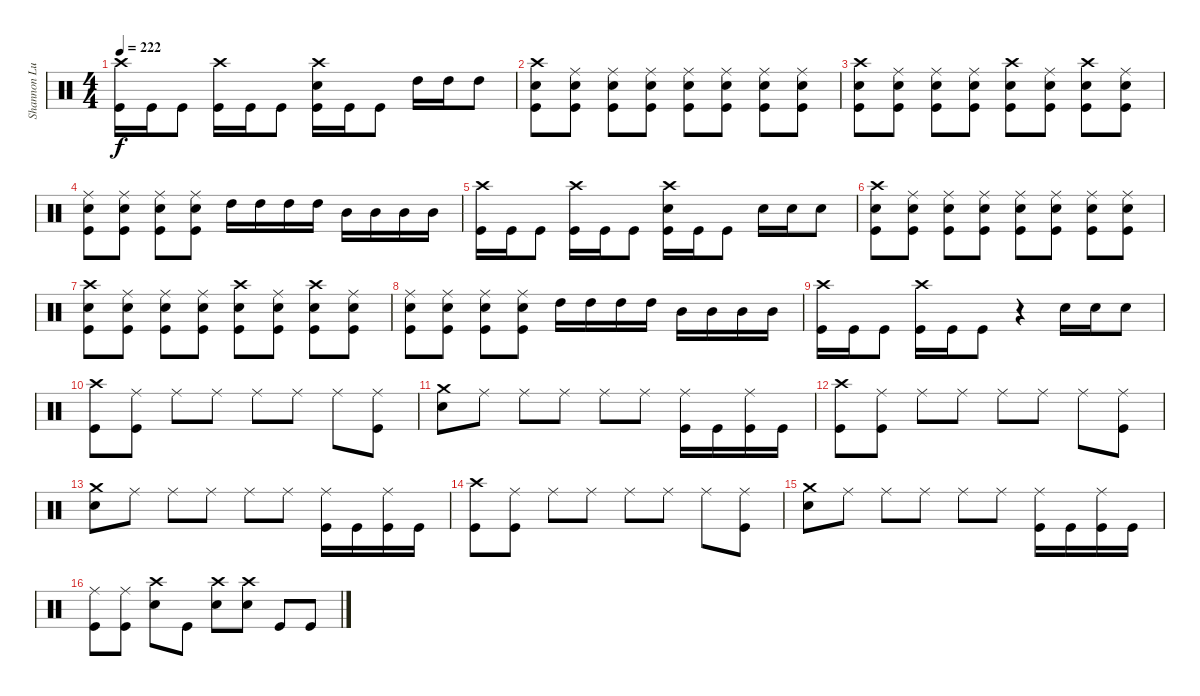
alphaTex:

\track ("Shannon Lucas" "Shannon Lu") {instrument percussion}
\staff {score}
\articulation defaults
\ts (4 4)
\tempo 222
\clef neutral
\ks c
("Crash high (hit)" "Kick (hit)").16{dy f} "Kick (hit)".16 "Kick (hit)".8 ("Crash high (hit)" "Kick (hit)").16 "Kick (hit)".16 "Kick (hit)".8 ("Crash high (hit)" "Snare (hit) 2" "Kick (hit)").16 "Kick (hit)".16 "Kick (hit)".8 "High Tom (hit)".16 "High Tom (hit)".16 "High Tom (hit)".8 |
("Crash high (hit)" "Snare (hit) 2" "Kick (hit)").8 ("Ride (middle)" "Snare (hit) 2" "Kick (hit)").8 ("Ride (middle)" "Snare (hit) 2" "Kick (hit)").8 ("Ride (middle)" "Snare (hit) 2" "Kick (hit)").8 ("Ride (middle)" "Snare (hit) 2" "Kick (hit)").8 ("Ride (middle)" "Snare (hit) 2" "Kick (hit)").8 ("Ride (middle)" "Snare (hit) 2" "Kick (hit)").8 ("Ride (middle)" "Snare (hit) 2" "Kick (hit)").8 |
("Crash high (hit)" "Snare (hit) 2" "Kick (hit)").8 ("Ride (middle)" "Snare (hit) 2" "Kick (hit)").8 ("Ride (middle)" "Snare (hit) 2" "Kick (hit)").8 ("Ride (middle)" "Snare (hit) 2" "Kick (hit)").8 ("Crash high (hit)" "Snare (hit) 2" "Kick (hit)").8 ("Ride (middle)" "Snare (hit) 2" "Kick (hit)").8 ("Crash high (hit)" "Snare (hit) 2" "Kick (hit)").8 ("Ride (middle)" "Snare (hit) 2" "Kick (hit)").8 |
("Ride (middle)" "Snare (hit) 2" "Kick (hit)").8 ("Ride (middle)" "Snare (hit) 2" "Kick (hit)").8 ("Ride (middle)" "Snare (hit) 2" "Kick (hit)").8 ("Ride (middle)" "Snare (hit) 2" "Kick (hit)").8 "High Tom (hit)".16 "High Tom (hit)".16 "High Tom (hit)".16 "High Tom (hit)".16 "Mid Tom (hit)".16 "Mid Tom (hit)".16 "Mid Tom (hit)".16 "Mid Tom (hit)".16 |
("Crash high (hit)" "Kick (hit)").16 "Kick (hit)".16 "Kick (hit)".8 ("Crash high (hit)" "Kick (hit)").16 "Kick (hit)".16 "Kick (hit)".8 ("Crash high (hit)" "Snare (hit) 2" "Kick (hit)").16 "Kick (hit)".16 "Kick (hit)".8 "Snare (hit) 2".16 "Snare (hit) 2".16 "Snare (hit) 2".8 |
("Crash high (hit)" "Snare (hit) 2" "Kick (hit)").8 ("Ride (middle)" "Snare (hit) 2" "Kick (hit)").8 ("Ride (middle)" "Snare (hit) 2" "Kick (hit)").8 ("Ride (middle)" "Snare (hit) 2" "Kick (hit)").8 ("Ride (middle)" "Snare (hit) 2" "Kick (hit)").8 ("Ride (middle)" "Snare (hit) 2" "Kick (hit)").8 ("Ride (middle)" "Snare (hit) 2" "Kick (hit)").8 ("Ride (middle)" "Snare (hit) 2" "Kick (hit)").8 |
("Crash high (hit)" "Snare (hit) 2" "Kick (hit)").8 ("Ride (middle)" "Snare (hit) 2" "Kick (hit)").8 ("Ride (middle)" "Snare (hit) 2" "Kick (hit)").8 ("Ride (middle)" "Snare (hit) 2" "Kick (hit)").8 ("Crash high (hit)" "Snare (hit) 2" "Kick (hit)").8 ("Ride (middle)" "Snare (hit) 2" "Kick (hit)").8 ("Crash high (hit)" "Snare (hit) 2" "Kick (hit)").8 ("Ride (middle)" "Snare (hit) 2" "Kick (hit)").8 |
("Ride (middle)" "Snare (hit) 2" "Kick (hit)").8 ("Ride (middle)" "Snare (hit) 2" "Kick (hit)").8 ("Ride (middle)" "Snare (hit) 2" "Kick (hit)").8 ("Ride (middle)" "Snare (hit) 2" "Kick (hit)").8 "High Tom (hit)".16 "High Tom (hit)".16 "High Tom (hit)".16 "High Tom (hit)".16 "Mid Tom (hit)".16 "Mid Tom (hit)".16 "Mid Tom (hit)".16 "Mid Tom (hit)".16 |
("Crash high (hit)" "Kick (hit)").16 "Kick (hit)".16 "Kick (hit)".8 ("Crash high (hit)" "Kick (hit)").16 "Kick (hit)".16 "Kick (hit)".8 r.4 "Snare (hit) 2".16 "Snare (hit) 2".16 "Snare (hit) 2".8 |
("Crash high (hit)" "Kick (hit)").8 ("Ride (middle)" "Kick (hit)").8 "Ride (middle)".8 "Ride (middle)".8 "Ride (middle)".8 "Ride (middle)".8 "Ride (middle)".8 ("Ride (middle)" "Kick (hit)").8 |
("Crash medium (hit)" "Snare (hit) 2").8 "Ride (middle)".8 "Ride (middle)".8 "Ride (middle)".8 "Ride (middle)".8 "Ride (middle)".8 ("Ride (middle)" "Kick (hit)").16 "Kick (hit)".16 ("Ride (middle)" "Kick (hit)").16 "Kick (hit)".16 |
("Crash high (hit)" "Kick (hit)").8 ("Ride (middle)" "Kick (hit)").8 "Ride (middle)".8 "Ride (middle)".8 "Ride (middle)".8 "Ride (middle)".8 "Ride (middle)".8 ("Ride (middle)" "Kick (hit)").8 |
("Crash medium (hit)" "Snare (hit) 2").8 "Ride (middle)".8 "Ride (middle)".8 "Ride (middle)".8 "Ride (middle)".8 "Ride (middle)".8 ("Ride (middle)" "Kick (hit)").16 "Kick (hit)".16 ("Ride (middle)" "Kick (hit)").16 "Kick (hit)".16 |
("Crash high (hit)" "Kick (hit)").8 ("Ride (middle)" "Kick (hit)").8 "Ride (middle)".8 "Ride (middle)".8 "Ride (middle)".8 "Ride (middle)".8 "Ride (middle)".8 ("Ride (middle)" "Kick (hit)").8 |
("Crash medium (hit)" "Snare (hit) 2").8 "Ride (middle)".8 "Ride (middle)".8 "Ride (middle)".8 "Ride (middle)".8 "Ride (middle)".8 ("Ride (middle)" "Kick (hit)").16 "Kick (hit)".16 ("Ride (middle)" "Kick (hit)").16 "Kick (hit)".16 |
("Ride (middle)" "Kick (hit)").8 ("Ride (middle)" "Kick (hit)").8 ("Crash high (hit)" "Snare (hit) 2").8 "Kick (hit)".8 ("Crash high (hit)" "Snare (hit) 2").8 ("Crash high (hit)" "Snare (hit) 2").8 "Kick (hit)".8 "Kick (hit)".8
